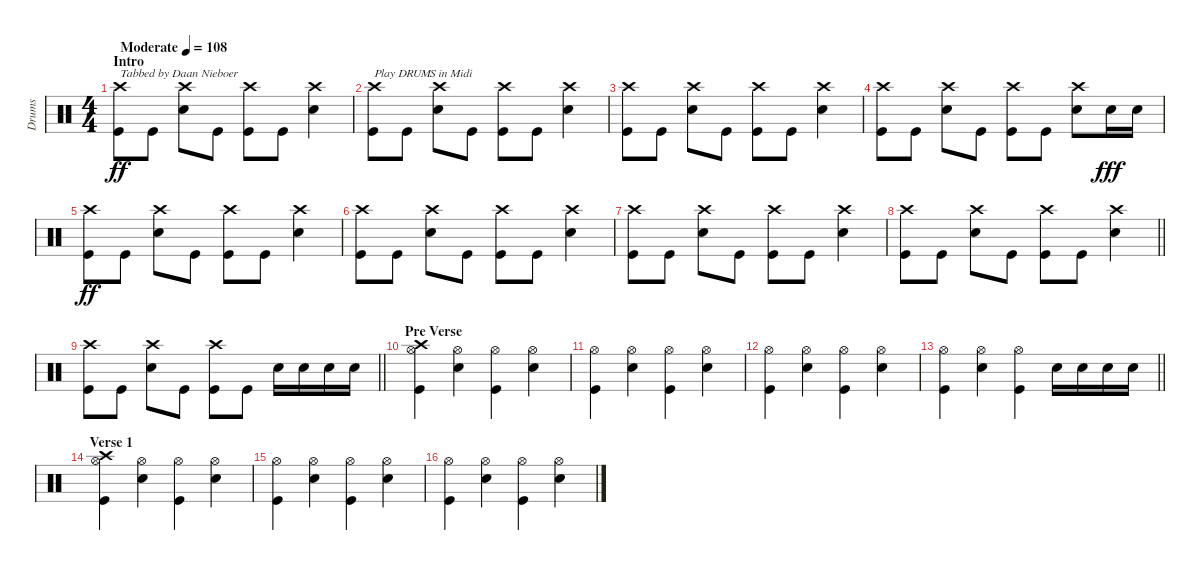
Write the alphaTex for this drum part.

\track ("Drums" "Drums") {instrument percussion}
\staff {score}
\articulation defaults
\ts (4 4)
\section ("" "Intro")
\tempo (108 "Moderate")
\clef neutral
\ks c
("Crash high (hit)" "Kick (hit)").8{txt "Tabbed by Daan Nieboer" dy ff} "Kick (hit)".8 ("Crash high (hit)" "Snare (hit) 2").8 "Kick (hit)".8 ("Crash high (hit)" "Kick (hit)").8 "Kick (hit)".8 ("Crash high (hit)" "Snare (hit) 2").4 |
("Crash high (hit)" "Kick (hit)").8{txt "Play DRUMS in Midi"} "Kick (hit)".8 ("Crash high (hit)" "Snare (hit) 2").8 "Kick (hit)".8 ("Crash high (hit)" "Kick (hit)").8 "Kick (hit)".8 ("Crash high (hit)" "Snare (hit) 2").4 |
("Crash high (hit)" "Kick (hit)").8 "Kick (hit)".8 ("Crash high (hit)" "Snare (hit) 2").8 "Kick (hit)".8 ("Crash high (hit)" "Kick (hit)").8 "Kick (hit)".8 ("Crash high (hit)" "Snare (hit) 2").4 |
("Crash high (hit)" "Kick (hit)").8 "Kick (hit)".8 ("Crash high (hit)" "Snare (hit) 2").8 "Kick (hit)".8 ("Crash high (hit)" "Kick (hit)").8 "Kick (hit)".8 ("Crash high (hit)" "Snare (hit) 2").8 "Snare (hit) 2".16{dy fff} "Snare (hit) 2".16 |
("Crash high (hit)" "Kick (hit)").8{dy ff} "Kick (hit)".8 ("Crash high (hit)" "Snare (hit) 2").8 "Kick (hit)".8 ("Crash high (hit)" "Kick (hit)").8 "Kick (hit)".8 ("Crash high (hit)" "Snare (hit) 2").4 |
("Crash high (hit)" "Kick (hit)").8 "Kick (hit)".8 ("Crash high (hit)" "Snare (hit) 2").8 "Kick (hit)".8 ("Crash high (hit)" "Kick (hit)").8 "Kick (hit)".8 ("Crash high (hit)" "Snare (hit) 2").4 |
("Crash high (hit)" "Kick (hit)").8 "Kick (hit)".8 ("Crash high (hit)" "Snare (hit) 2").8 "Kick (hit)".8 ("Crash high (hit)" "Kick (hit)").8 "Kick (hit)".8 ("Crash high (hit)" "Snare (hit) 2").4 |
\barLineRight lightlight
("Crash high (hit)" "Kick (hit)").8 "Kick (hit)".8 ("Crash high (hit)" "Snare (hit) 2").8 "Kick (hit)".8 ("Crash high (hit)" "Kick (hit)").8 "Kick (hit)".8 ("Crash high (hit)" "Snare (hit) 2").4 |
\barLineRight lightlight
("Crash high (hit)" "Kick (hit)").8 "Kick (hit)".8 ("Crash high (hit)" "Snare (hit) 2").8 "Kick (hit)".8 ("Crash high (hit)" "Kick (hit)").8 "Kick (hit)".8 "Snare (hit) 2".16 "Snare (hit) 2".16 "Snare (hit) 2".16 "Snare (hit) 2".16 |
\section ("" "Pre Verse")
("Crash high (hit)" "Hi-Hat (open)" "Kick (hit)").4 ("Hi-Hat (open)" "Snare (hit) 2").4 ("Hi-Hat (open)" "Kick (hit)").4 ("Hi-Hat (open)" "Snare (hit) 2").4 |
("Hi-Hat (open)" "Kick (hit)").4 ("Hi-Hat (open)" "Snare (hit) 2").4 ("Hi-Hat (open)" "Kick (hit)").4 ("Hi-Hat (open)" "Snare (hit) 2").4 |
("Hi-Hat (open)" "Kick (hit)").4 ("Hi-Hat (open)" "Snare (hit) 2").4 ("Hi-Hat (open)" "Kick (hit)").4 ("Hi-Hat (open)" "Snare (hit) 2").4 |
\barLineRight lightlight
("Hi-Hat (open)" "Kick (hit)").4 ("Hi-Hat (open)" "Snare (hit) 2").4 ("Hi-Hat (open)" "Kick (hit)").4 "Snare (hit) 2".16 "Snare (hit) 2".16 "Snare (hit) 2".16 "Snare (hit) 2".16 |
\section ("" "Verse 1")
("Crash high (hit)" "Hi-Hat (open)" "Kick (hit)").4 ("Hi-Hat (open)" "Snare (hit) 2").4 ("Hi-Hat (open)" "Kick (hit)").4 ("Hi-Hat (open)" "Snare (hit) 2").4 |
("Hi-Hat (open)" "Kick (hit)").4 ("Hi-Hat (open)" "Snare (hit) 2").4 ("Hi-Hat (open)" "Kick (hit)").4 ("Hi-Hat (open)" "Snare (hit) 2").4 |
("Hi-Hat (open)" "Kick (hit)").4 ("Hi-Hat (open)" "Snare (hit) 2").4 ("Hi-Hat (open)" "Kick (hit)").4 ("Hi-Hat (open)" "Snare (hit) 2").4
